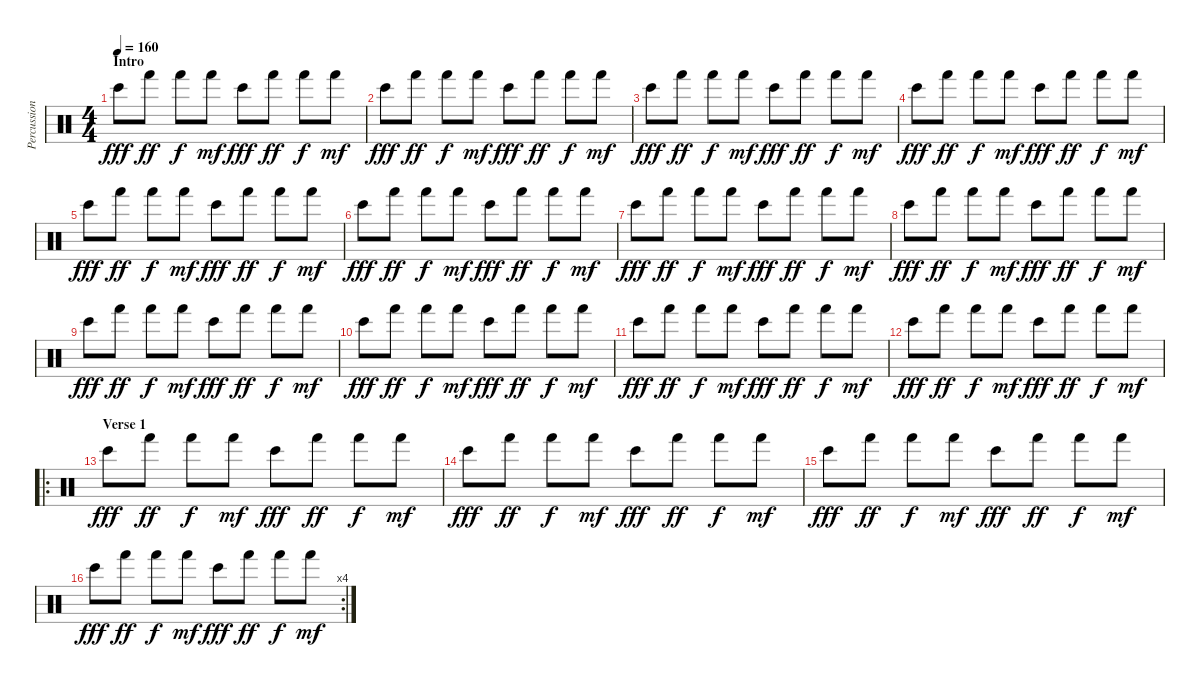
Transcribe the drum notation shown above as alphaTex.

\track ("Percussion" "Percussion") {instrument percussion}
\staff {score}
\articulation defaults
\ts (4 4)
\section ("" "Intro")
\tempo 160
\clef neutral
\ks c "Bongo High (hit)".8{dy fff} "Hand (hit)".8{dy ff} "Hand (hit)".8{dy f} "Hand (hit)".8{dy mf} "Bongo High (hit)".8{dy fff} "Hand (hit)".8{dy ff} "Hand (hit)".8{dy f} "Hand (hit)".8{dy mf}
|
"Bongo High (hit)".8{dy fff} "Hand (hit)".8{dy ff} "Hand (hit)".8{dy f} "Hand (hit)".8{dy mf} "Bongo High (hit)".8{dy fff} "Hand (hit)".8{dy ff} "Hand (hit)".8{dy f} "Hand (hit)".8{dy mf} |
"Bongo High (hit)".8{dy fff} "Hand (hit)".8{dy ff} "Hand (hit)".8{dy f} "Hand (hit)".8{dy mf} "Bongo High (hit)".8{dy fff} "Hand (hit)".8{dy ff} "Hand (hit)".8{dy f} "Hand (hit)".8{dy mf} |
"Bongo High (hit)".8{dy fff} "Hand (hit)".8{dy ff} "Hand (hit)".8{dy f} "Hand (hit)".8{dy mf} "Bongo High (hit)".8{dy fff} "Hand (hit)".8{dy ff} "Hand (hit)".8{dy f} "Hand (hit)".8{dy mf} |
"Bongo High (hit)".8{dy fff} "Hand (hit)".8{dy ff} "Hand (hit)".8{dy f} "Hand (hit)".8{dy mf} "Bongo High (hit)".8{dy fff} "Hand (hit)".8{dy ff} "Hand (hit)".8{dy f} "Hand (hit)".8{dy mf} |
"Bongo High (hit)".8{dy fff} "Hand (hit)".8{dy ff} "Hand (hit)".8{dy f} "Hand (hit)".8{dy mf} "Bongo High (hit)".8{dy fff} "Hand (hit)".8{dy ff} "Hand (hit)".8{dy f} "Hand (hit)".8{dy mf} |
"Bongo High (hit)".8{dy fff} "Hand (hit)".8{dy ff} "Hand (hit)".8{dy f} "Hand (hit)".8{dy mf} "Bongo High (hit)".8{dy fff} "Hand (hit)".8{dy ff} "Hand (hit)".8{dy f} "Hand (hit)".8{dy mf} |
"Bongo High (hit)".8{dy fff} "Hand (hit)".8{dy ff} "Hand (hit)".8{dy f} "Hand (hit)".8{dy mf} "Bongo High (hit)".8{dy fff} "Hand (hit)".8{dy ff} "Hand (hit)".8{dy f} "Hand (hit)".8{dy mf} |
"Bongo High (hit)".8{dy fff} "Hand (hit)".8{dy ff} "Hand (hit)".8{dy f} "Hand (hit)".8{dy mf} "Bongo High (hit)".8{dy fff} "Hand (hit)".8{dy ff} "Hand (hit)".8{dy f} "Hand (hit)".8{dy mf} |
"Bongo High (hit)".8{dy fff} "Hand (hit)".8{dy ff} "Hand (hit)".8{dy f} "Hand (hit)".8{dy mf} "Bongo High (hit)".8{dy fff} "Hand (hit)".8{dy ff} "Hand (hit)".8{dy f} "Hand (hit)".8{dy mf} |
"Bongo High (hit)".8{dy fff} "Hand (hit)".8{dy ff} "Hand (hit)".8{dy f} "Hand (hit)".8{dy mf} "Bongo High (hit)".8{dy fff} "Hand (hit)".8{dy ff} "Hand (hit)".8{dy f} "Hand (hit)".8{dy mf} |
"Bongo High (hit)".8{dy fff} "Hand (hit)".8{dy ff} "Hand (hit)".8{dy f} "Hand (hit)".8{dy mf} "Bongo High (hit)".8{dy fff} "Hand (hit)".8{dy ff} "Hand (hit)".8{dy f} "Hand (hit)".8{dy mf} |
\ro
\section ("" "Verse 1")
"Bongo High (hit)".8{dy fff} "Hand (hit)".8{dy ff} "Hand (hit)".8{dy f} "Hand (hit)".8{dy mf} "Bongo High (hit)".8{dy fff} "Hand (hit)".8{dy ff} "Hand (hit)".8{dy f} "Hand (hit)".8{dy mf} |
"Bongo High (hit)".8{dy fff} "Hand (hit)".8{dy ff} "Hand (hit)".8{dy f} "Hand (hit)".8{dy mf} "Bongo High (hit)".8{dy fff} "Hand (hit)".8{dy ff} "Hand (hit)".8{dy f} "Hand (hit)".8{dy mf} |
"Bongo High (hit)".8{dy fff} "Hand (hit)".8{dy ff} "Hand (hit)".8{dy f} "Hand (hit)".8{dy mf} "Bongo High (hit)".8{dy fff} "Hand (hit)".8{dy ff} "Hand (hit)".8{dy f} "Hand (hit)".8{dy mf} |
\rc 4 "Bongo High (hit)".8{dy fff} "Hand (hit)".8{dy ff} "Hand (hit)".8{dy f} "Hand (hit)".8{dy mf} "Bongo High (hit)".8{dy fff} "Hand (hit)".8{dy ff} "Hand (hit)".8{dy f} "Hand (hit)".8{dy mf}
